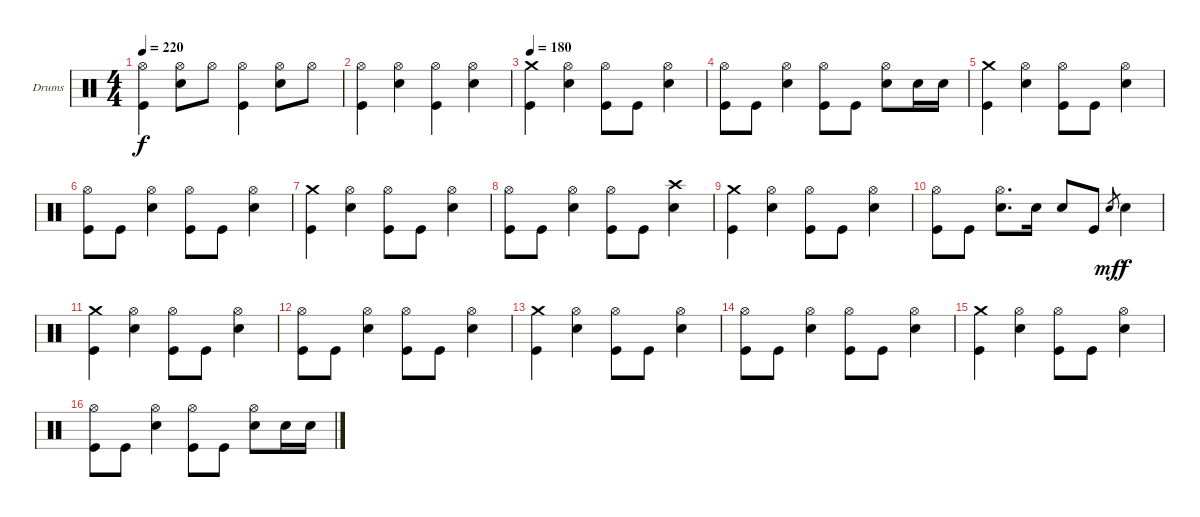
\bracketExtendMode groupsimilarinstruments
\firstSystemTrackNameOrientation horizontal
\otherSystemsTrackNameOrientation horizontal
\track ("Dave Lombardo" "Drums") {instrument percussion}
\staff {score}
\articulation defaults
\ts (4 4)
\tempo 220
\clef neutral
\ks c
("Kick (hit)" "Hi-Hat (open)").4{dy f} ("Snare (hit) 2" "Hi-Hat (open)").8 "Hi-Hat (open)".8 ("Kick (hit)" "Hi-Hat (open)").4 ("Snare (hit) 2" "Hi-Hat (open)").8 "Hi-Hat (open)".8 |
("Kick (hit)" "Hi-Hat (open)").4 ("Snare (hit) 2" "Hi-Hat (open)").4 ("Kick (hit)" "Hi-Hat (open)").4 ("Snare (hit) 2" "Hi-Hat (open)").4 |
\tempo 180
("Kick (hit)" "Crash medium (hit)").4 ("Snare (hit) 2" "Hi-Hat (open)").4 ("Kick (hit)" "Hi-Hat (open)").8 "Kick (hit)".8 ("Snare (hit) 2" "Hi-Hat (open)").4 |
("Kick (hit)" "Hi-Hat (open)").8 "Kick (hit)".8 ("Snare (hit) 2" "Hi-Hat (open)").4 ("Kick (hit)" "Hi-Hat (open)").8 "Kick (hit)".8 ("Snare (hit) 2" "Hi-Hat (open)").8 "Snare (hit) 2".16 "Snare (hit) 2".16 |
("Kick (hit)" "Crash medium (hit)").4 ("Snare (hit) 2" "Hi-Hat (open)").4 ("Kick (hit)" "Hi-Hat (open)").8 "Kick (hit)".8 ("Snare (hit) 2" "Hi-Hat (open)").4 |
("Kick (hit)" "Hi-Hat (open)").8 "Kick (hit)".8 ("Snare (hit) 2" "Hi-Hat (open)").4 ("Kick (hit)" "Hi-Hat (open)").8 "Kick (hit)".8 ("Snare (hit) 2" "Hi-Hat (open)").4 |
("Kick (hit)" "Crash medium (hit)").4 ("Snare (hit) 2" "Hi-Hat (open)").4 ("Kick (hit)" "Hi-Hat (open)").8 "Kick (hit)".8 ("Snare (hit) 2" "Hi-Hat (open)").4 |
("Kick (hit)" "Hi-Hat (open)").8 "Kick (hit)".8 ("Snare (hit) 2" "Hi-Hat (open)").4 ("Kick (hit)" "Hi-Hat (open)").8 "Kick (hit)".8 ("Snare (hit) 2" "Crash high (hit)").4 |
("Kick (hit)" "Crash medium (hit)").4 ("Snare (hit) 2" "Hi-Hat (open)").4 ("Kick (hit)" "Hi-Hat (open)").8 "Kick (hit)".8 ("Snare (hit) 2" "Hi-Hat (open)").4 |
("Kick (hit)" "Hi-Hat (open)").8 "Kick (hit)".8 ("Snare (hit) 2" "Hi-Hat (open)").8{d} "Snare (hit) 2".16 "Snare (hit) 2".8 "Kick (hit)".8 "Snare (hit) 2".8{gr dy mf} "Snare (hit) 2".4{dy f} |
("Kick (hit)" "Crash medium (hit)").4 ("Snare (hit) 2" "Hi-Hat (open)").4 ("Kick (hit)" "Hi-Hat (open)").8 "Kick (hit)".8 ("Snare (hit) 2" "Hi-Hat (open)").4 |
("Kick (hit)" "Hi-Hat (open)").8 "Kick (hit)".8 ("Snare (hit) 2" "Hi-Hat (open)").4 ("Kick (hit)" "Hi-Hat (open)").8 "Kick (hit)".8 ("Snare (hit) 2" "Hi-Hat (open)").4 |
("Kick (hit)" "Crash medium (hit)").4 ("Snare (hit) 2" "Hi-Hat (open)").4 ("Kick (hit)" "Hi-Hat (open)").8 "Kick (hit)".8 ("Snare (hit) 2" "Hi-Hat (open)").4 |
("Kick (hit)" "Hi-Hat (open)").8 "Kick (hit)".8 ("Snare (hit) 2" "Hi-Hat (open)").4 ("Kick (hit)" "Hi-Hat (open)").8 "Kick (hit)".8 ("Snare (hit) 2" "Hi-Hat (open)").4 |
("Kick (hit)" "Crash medium (hit)").4 ("Snare (hit) 2" "Hi-Hat (open)").4 ("Kick (hit)" "Hi-Hat (open)").8 "Kick (hit)".8 ("Snare (hit) 2" "Hi-Hat (open)").4 |
("Kick (hit)" "Hi-Hat (open)").8 "Kick (hit)".8 ("Snare (hit) 2" "Hi-Hat (open)").4 ("Kick (hit)" "Hi-Hat (open)").8 "Kick (hit)".8 ("Snare (hit) 2" "Hi-Hat (open)").8 "Snare (hit) 2".16 "Snare (hit) 2".16
